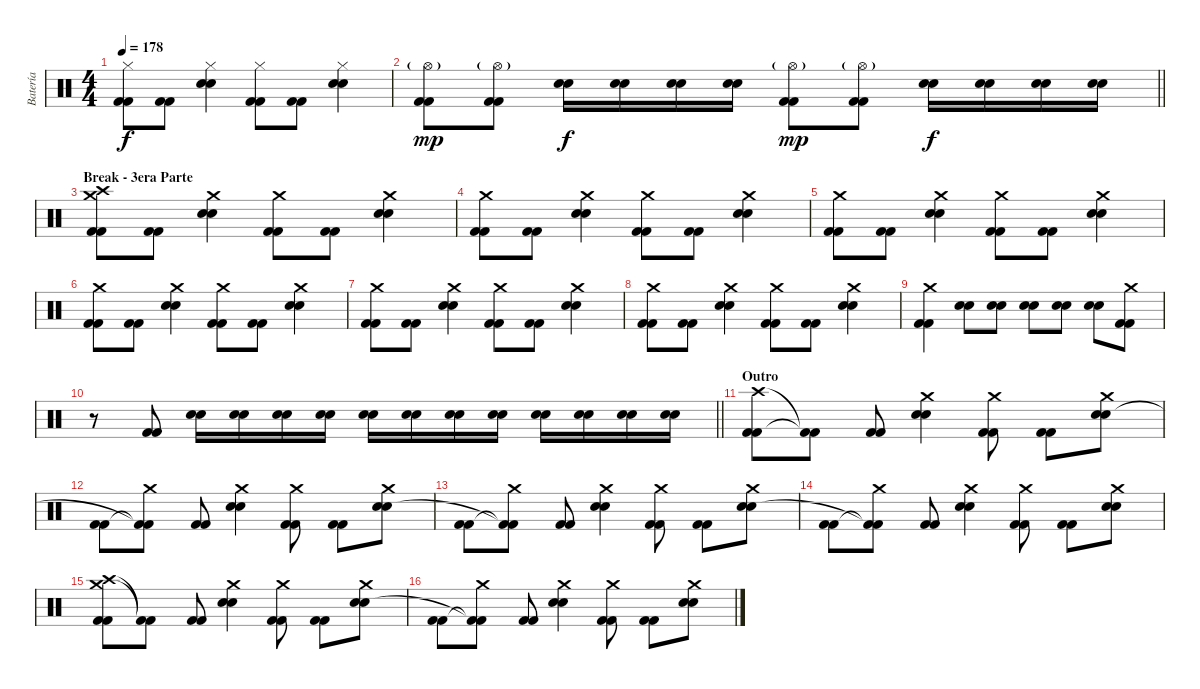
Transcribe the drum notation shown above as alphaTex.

\track ("Batería" "Batería") {instrument percussion}
\staff {score}
\articulation defaults
\ts (4 4)
\tempo 178
\clef neutral
\ks c
("Hi-Hat (closed)" "Kick (hit) 2" "Kick (hit) 2").8{dy f} ("Kick (hit) 2" "Kick (hit) 2").8 ("Hi-Hat (closed)" "Electric Snare (hit)" "Electric Snare (hit)").4 ("Hi-Hat (closed)" "Kick (hit) 2" "Kick (hit) 2").8 ("Kick (hit) 2" "Kick (hit) 2").8 ("Hi-Hat (closed)" "Electric Snare (hit)" "Electric Snare (hit)").4 |
\barLineRight lightlight
("Hi-Hat (open)"{g} "Kick (hit) 2" "Kick (hit) 2").8{dy mp} ("Hi-Hat (open)"{g} "Kick (hit) 2" "Kick (hit) 2").8 ("Electric Snare (hit)" "Electric Snare (hit)").16{dy f} ("Electric Snare (hit)" "Electric Snare (hit)").16 ("Electric Snare (hit)" "Electric Snare (hit)").16 ("Electric Snare (hit)" "Electric Snare (hit)").16 ("Hi-Hat (open)"{g} "Kick (hit) 2" "Kick (hit) 2").8{dy mp} ("Hi-Hat (open)"{g} "Kick (hit) 2" "Kick (hit) 2").8 ("Electric Snare (hit)" "Electric Snare (hit)").16{dy f} ("Electric Snare (hit)" "Electric Snare (hit)").16 ("Electric Snare (hit)" "Electric Snare (hit)").16 ("Electric Snare (hit)" "Electric Snare (hit)").16 |
\section ("" "Break - 3era Parte")
("Crash medium (hit)" "Crash high (hit)" "Kick (hit) 2" "Kick (hit) 2").8 ("Kick (hit) 2" "Kick (hit) 2").8 ("Crash medium (hit)" "Electric Snare (hit)" "Electric Snare (hit)").4 ("Crash medium (hit)" "Kick (hit) 2" "Kick (hit) 2").8 ("Kick (hit) 2" "Kick (hit) 2").8 ("Crash medium (hit)" "Electric Snare (hit)" "Electric Snare (hit)").4 |
("Crash medium (hit)" "Kick (hit) 2" "Kick (hit) 2").8 ("Kick (hit) 2" "Kick (hit) 2").8 ("Crash medium (hit)" "Electric Snare (hit)" "Electric Snare (hit)").4 ("Crash medium (hit)" "Kick (hit) 2" "Kick (hit) 2").8 ("Kick (hit) 2" "Kick (hit) 2").8 ("Crash medium (hit)" "Electric Snare (hit)" "Electric Snare (hit)").4 |
("Crash medium (hit)" "Kick (hit) 2" "Kick (hit) 2").8 ("Kick (hit) 2" "Kick (hit) 2").8 ("Crash medium (hit)" "Electric Snare (hit)" "Electric Snare (hit)").4 ("Crash medium (hit)" "Kick (hit) 2" "Kick (hit) 2").8 ("Kick (hit) 2" "Kick (hit) 2").8 ("Crash medium (hit)" "Electric Snare (hit)" "Electric Snare (hit)").4 |
("Crash medium (hit)" "Kick (hit) 2" "Kick (hit) 2").8 ("Kick (hit) 2" "Kick (hit) 2").8 ("Crash medium (hit)" "Electric Snare (hit)" "Electric Snare (hit)").4 ("Crash medium (hit)" "Kick (hit) 2" "Kick (hit) 2").8 ("Kick (hit) 2" "Kick (hit) 2").8 ("Crash medium (hit)" "Electric Snare (hit)" "Electric Snare (hit)").4 |
("Crash medium (hit)" "Kick (hit) 2" "Kick (hit) 2").8 ("Kick (hit) 2" "Kick (hit) 2").8 ("Crash medium (hit)" "Electric Snare (hit)" "Electric Snare (hit)").4 ("Crash medium (hit)" "Kick (hit) 2" "Kick (hit) 2").8 ("Kick (hit) 2" "Kick (hit) 2").8 ("Crash medium (hit)" "Electric Snare (hit)" "Electric Snare (hit)").4 |
("Crash medium (hit)" "Kick (hit) 2" "Kick (hit) 2").8 ("Kick (hit) 2" "Kick (hit) 2").8 ("Crash medium (hit)" "Electric Snare (hit)" "Electric Snare (hit)").4 ("Crash medium (hit)" "Kick (hit) 2" "Kick (hit) 2").8 ("Kick (hit) 2" "Kick (hit) 2").8 ("Crash medium (hit)" "Electric Snare (hit)" "Electric Snare (hit)").4 |
("Crash medium (hit)" "Kick (hit) 2" "Kick (hit) 2").4 ("Electric Snare (hit)" "Electric Snare (hit)").8 ("Electric Snare (hit)" "Electric Snare (hit)").8 ("Electric Snare (hit)" "Electric Snare (hit)").8 ("Electric Snare (hit)" "Electric Snare (hit)").8 ("Electric Snare (hit)" "Electric Snare (hit)").8 ("Crash medium (hit)" "Kick (hit) 2" "Kick (hit) 2").8 |
\barLineRight lightlight
r.8 ("Kick (hit) 2" "Kick (hit) 2").8 ("Electric Snare (hit)" "Electric Snare (hit)").16 ("Electric Snare (hit)" "Electric Snare (hit)").16 ("Electric Snare (hit)" "Electric Snare (hit)").16 ("Electric Snare (hit)" "Electric Snare (hit)").16 ("Electric Snare (hit)" "Electric Snare (hit)").16 ("Electric Snare (hit)" "Electric Snare (hit)").16 ("Electric Snare (hit)" "Electric Snare (hit)").16 ("Electric Snare (hit)" "Electric Snare (hit)").16 ("Electric Snare (hit)" "Electric Snare (hit)").16 ("Electric Snare (hit)" "Electric Snare (hit)").16 ("Electric Snare (hit)" "Electric Snare (hit)").16 ("Electric Snare (hit)" "Electric Snare (hit)").16 |
\section ("" "Outro")
("Crash high (hit)" "Kick (hit) 2" "Kick (hit) 2").8 ("Kick (hit) 2"{t} "Kick (hit) 2"{t}).8 ("Kick (hit) 2" "Kick (hit) 2").8 ("Crash medium (hit)" "Electric Snare (hit)" "Electric Snare (hit)").4 ("Crash medium (hit)" "Kick (hit) 2" "Kick (hit) 2").8 ("Kick (hit) 2" "Kick (hit) 2").8 ("Crash medium (hit)" "Electric Snare (hit)" "Electric Snare (hit)").8 |
("Kick (hit) 2" "Kick (hit) 2").8 ("Crash medium (hit)" "Kick (hit) 2"{t} "Kick (hit) 2"{t}).8 ("Kick (hit) 2" "Kick (hit) 2").8 ("Crash medium (hit)" "Electric Snare (hit)" "Electric Snare (hit)").4 ("Crash medium (hit)" "Kick (hit) 2" "Kick (hit) 2").8 ("Kick (hit) 2" "Kick (hit) 2").8 ("Crash medium (hit)" "Electric Snare (hit)" "Electric Snare (hit)").8 |
("Kick (hit) 2" "Kick (hit) 2").8 ("Crash medium (hit)" "Kick (hit) 2"{t} "Kick (hit) 2"{t}).8 ("Kick (hit) 2" "Kick (hit) 2").8 ("Crash medium (hit)" "Electric Snare (hit)" "Electric Snare (hit)").4 ("Crash medium (hit)" "Kick (hit) 2" "Kick (hit) 2").8 ("Kick (hit) 2" "Kick (hit) 2").8 ("Crash medium (hit)" "Electric Snare (hit)" "Electric Snare (hit)").8 |
("Kick (hit) 2" "Kick (hit) 2").8 ("Crash medium (hit)" "Kick (hit) 2"{t} "Kick (hit) 2"{t}).8 ("Kick (hit) 2" "Kick (hit) 2").8 ("Crash medium (hit)" "Electric Snare (hit)" "Electric Snare (hit)").4 ("Crash medium (hit)" "Kick (hit) 2" "Kick (hit) 2").8 ("Kick (hit) 2" "Kick (hit) 2").8 ("Crash medium (hit)" "Electric Snare (hit)" "Electric Snare (hit)").8 |
("Crash medium (hit)" "Crash high (hit)" "Kick (hit) 2" "Kick (hit) 2").8 ("Kick (hit) 2"{t} "Kick (hit) 2"{t}).8 ("Kick (hit) 2" "Kick (hit) 2").8 ("Crash medium (hit)" "Electric Snare (hit)" "Electric Snare (hit)").4 ("Crash medium (hit)" "Kick (hit) 2" "Kick (hit) 2").8 ("Kick (hit) 2" "Kick (hit) 2").8 ("Crash medium (hit)" "Electric Snare (hit)" "Electric Snare (hit)").8 |
("Kick (hit) 2" "Kick (hit) 2").8 ("Crash medium (hit)" "Kick (hit) 2"{t} "Kick (hit) 2"{t}).8 ("Kick (hit) 2" "Kick (hit) 2").8 ("Crash medium (hit)" "Electric Snare (hit)" "Electric Snare (hit)").4 ("Crash medium (hit)" "Kick (hit) 2" "Kick (hit) 2").8 ("Kick (hit) 2" "Kick (hit) 2").8 ("Crash medium (hit)" "Electric Snare (hit)" "Electric Snare (hit)").8
